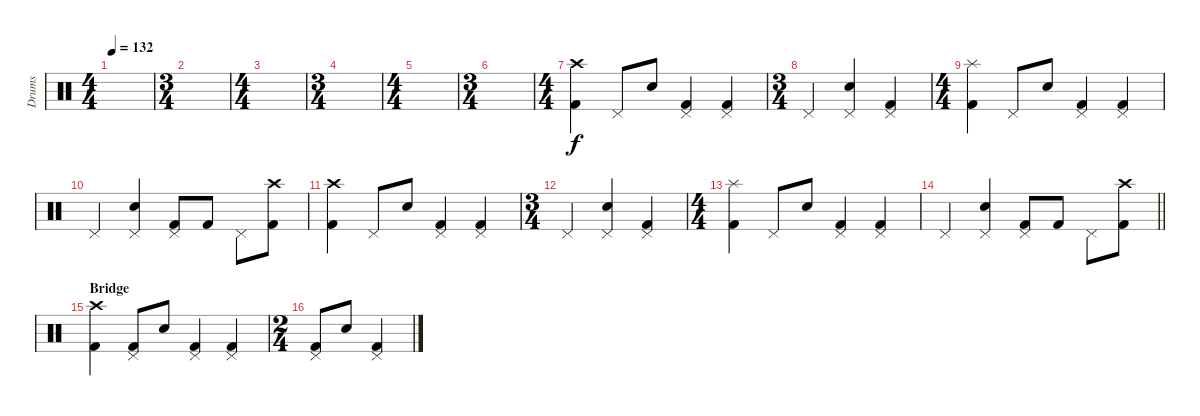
\track ("Drums" "Drums") {instrument percussion}
\staff {score}
\articulation defaults
\ts (4 4)
\tempo 132
\clef neutral
\ks c
|
\ts (3 4)
|
\ts (4 4)
|
\ts (3 4)
|
\ts (4 4)
|
\ts (3 4)
|
\ts (4 4)
("Crash high (hit)" "Kick (hit) 2").4 "Pedal Hi-Hat (hit)".8 "Snare (hit) 2".8 ("Pedal Hi-Hat (hit)" "Kick (hit) 2").4 ("Pedal Hi-Hat (hit)" "Kick (hit) 2").4 |
\ts (3 4)
"Pedal Hi-Hat (hit)".4 ("Pedal Hi-Hat (hit)" "Snare (hit) 2").4 ("Pedal Hi-Hat (hit)" "Kick (hit) 2").4 |
\ts (4 4)
("Splash (hit)" "Kick (hit) 2").4 "Pedal Hi-Hat (hit)".8 "Snare (hit) 2".8 ("Pedal Hi-Hat (hit)" "Kick (hit) 2").4 ("Pedal Hi-Hat (hit)" "Kick (hit) 2").4 |
"Pedal Hi-Hat (hit)".4 ("Pedal Hi-Hat (hit)" "Snare (hit) 2").4 ("Pedal Hi-Hat (hit)" "Kick (hit) 2").8 "Kick (hit) 2".8 "Pedal Hi-Hat (hit)".8 ("Crash high (hit)" "Kick (hit) 2").8 |
("Crash high (hit)" "Kick (hit) 2").4 "Pedal Hi-Hat (hit)".8 "Snare (hit) 2".8 ("Pedal Hi-Hat (hit)" "Kick (hit) 2").4 ("Pedal Hi-Hat (hit)" "Kick (hit) 2").4 |
\ts (3 4)
"Pedal Hi-Hat (hit)".4 ("Pedal Hi-Hat (hit)" "Snare (hit) 2").4 ("Pedal Hi-Hat (hit)" "Kick (hit) 2").4 |
\ts (4 4)
("Splash (hit)" "Kick (hit) 2").4 "Pedal Hi-Hat (hit)".8 "Snare (hit) 2".8 ("Pedal Hi-Hat (hit)" "Kick (hit) 2").4 ("Pedal Hi-Hat (hit)" "Kick (hit) 2").4 |
\barLineRight lightlight "Pedal Hi-Hat (hit)".4
("Pedal Hi-Hat (hit)" "Snare (hit) 2").4 ("Pedal Hi-Hat (hit)" "Kick (hit) 2").8 "Kick (hit) 2".8 "Pedal Hi-Hat (hit)".8 ("Crash high (hit)" "Kick (hit) 2").8 |
\section ("" "Bridge")
("Crash high (hit)" "Kick (hit) 2").4 ("Pedal Hi-Hat (hit)" "Kick (hit) 2").8 "Snare (hit) 2".8 ("Pedal Hi-Hat (hit)" "Kick (hit) 2").4 ("Pedal Hi-Hat (hit)" "Kick (hit) 2").4 |
\ts (2 4)
("Pedal Hi-Hat (hit)" "Kick (hit) 2").8 "Snare (hit) 2".8 ("Pedal Hi-Hat (hit)" "Kick (hit) 2").4
